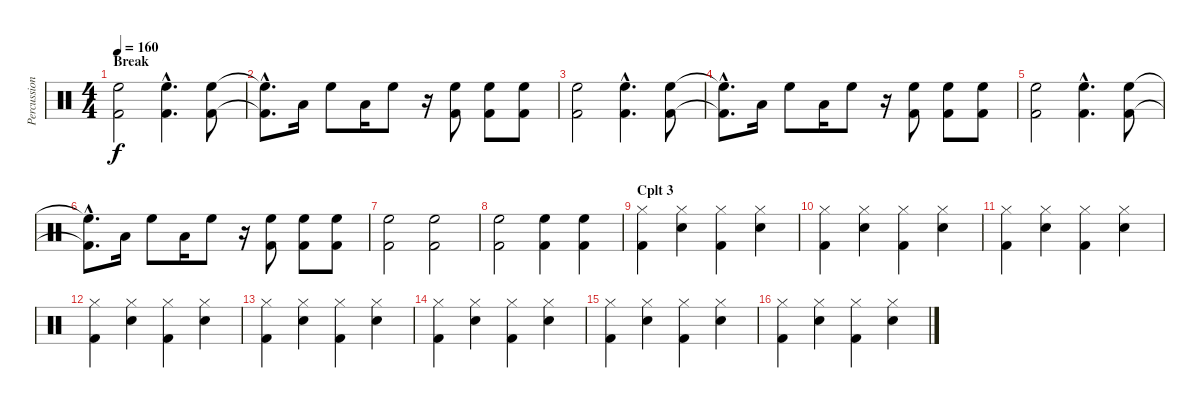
\track ("Percussions" "Percussion") {instrument percussion}
\staff {score}
\articulation defaults
\ts (4 4)
\section ("" "Break")
\tempo 160
\clef neutral
\ks c
("High Floor Tom (hit)" "Kick (hit) 2").2{dy f} ("High Floor Tom (hit)"{hac} "Kick (hit) 2"{hac}).4{d} ("High Floor Tom (hit)" "Kick (hit) 2").8 |
("High Floor Tom (hit)"{hac t} "Kick (hit) 2"{hac t}).8{d} "Low Floor Tom (hit)".16 "High Floor Tom (hit)".8 "Low Floor Tom (hit)".16 "High Floor Tom (hit)".8 r.16 ("High Floor Tom (hit)" "Kick (hit) 2").8 ("High Floor Tom (hit)" "Kick (hit) 2").8 ("High Floor Tom (hit)" "Kick (hit) 2").8 |
("High Floor Tom (hit)" "Kick (hit) 2").2 ("High Floor Tom (hit)"{hac} "Kick (hit) 2"{hac}).4{d} ("High Floor Tom (hit)" "Kick (hit) 2").8 |
("High Floor Tom (hit)"{hac t} "Kick (hit) 2"{hac t}).8{d} "Low Floor Tom (hit)".16 "High Floor Tom (hit)".8 "Low Floor Tom (hit)".16 "High Floor Tom (hit)".8 r.16 ("High Floor Tom (hit)" "Kick (hit) 2").8 ("High Floor Tom (hit)" "Kick (hit) 2").8 ("High Floor Tom (hit)" "Kick (hit) 2").8 |
("High Floor Tom (hit)" "Kick (hit) 2").2 ("High Floor Tom (hit)"{hac} "Kick (hit) 2"{hac}).4{d} ("High Floor Tom (hit)" "Kick (hit) 2").8 |
("High Floor Tom (hit)"{hac t} "Kick (hit) 2"{hac t}).8{d} "Low Floor Tom (hit)".16 "High Floor Tom (hit)".8 "Low Floor Tom (hit)".16 "High Floor Tom (hit)".8 r.16 ("High Floor Tom (hit)" "Kick (hit) 2").8 ("High Floor Tom (hit)" "Kick (hit) 2").8 ("High Floor Tom (hit)" "Kick (hit) 2").8 |
("High Floor Tom (hit)" "Kick (hit) 2").2 ("High Floor Tom (hit)" "Kick (hit) 2").2 |
("High Floor Tom (hit)" "Kick (hit) 2").2 ("High Floor Tom (hit)" "Kick (hit) 2").4 ("High Floor Tom (hit)" "Kick (hit) 2").4 |
\section ("" "Cplt 3")
("Hi-Hat (closed)" "Kick (hit) 2").4 ("Hi-Hat (closed)" "Snare (hit) 2").4 ("Hi-Hat (closed)" "Kick (hit) 2").4 ("Hi-Hat (closed)" "Snare (hit) 2").4 |
("Hi-Hat (closed)" "Kick (hit) 2").4 ("Hi-Hat (closed)" "Snare (hit) 2").4 ("Hi-Hat (closed)" "Kick (hit) 2").4 ("Hi-Hat (closed)" "Snare (hit) 2").4 |
("Hi-Hat (closed)" "Kick (hit) 2").4 ("Hi-Hat (closed)" "Snare (hit) 2").4 ("Hi-Hat (closed)" "Kick (hit) 2").4 ("Hi-Hat (closed)" "Snare (hit) 2").4 |
("Hi-Hat (closed)" "Kick (hit) 2").4 ("Hi-Hat (closed)" "Snare (hit) 2").4 ("Hi-Hat (closed)" "Kick (hit) 2").4 ("Hi-Hat (closed)" "Snare (hit) 2").4 |
("Hi-Hat (closed)" "Kick (hit) 2").4 ("Hi-Hat (closed)" "Snare (hit) 2").4 ("Hi-Hat (closed)" "Kick (hit) 2").4 ("Hi-Hat (closed)" "Snare (hit) 2").4 |
("Hi-Hat (closed)" "Kick (hit) 2").4 ("Hi-Hat (closed)" "Snare (hit) 2").4 ("Hi-Hat (closed)" "Kick (hit) 2").4 ("Hi-Hat (closed)" "Snare (hit) 2").4 |
("Hi-Hat (closed)" "Kick (hit) 2").4 ("Hi-Hat (closed)" "Snare (hit) 2").4 ("Hi-Hat (closed)" "Kick (hit) 2").4 ("Hi-Hat (closed)" "Snare (hit) 2").4 |
("Hi-Hat (closed)" "Kick (hit) 2").4 ("Hi-Hat (closed)" "Snare (hit) 2").4 ("Hi-Hat (closed)" "Kick (hit) 2").4 ("Hi-Hat (closed)" "Snare (hit) 2").4
